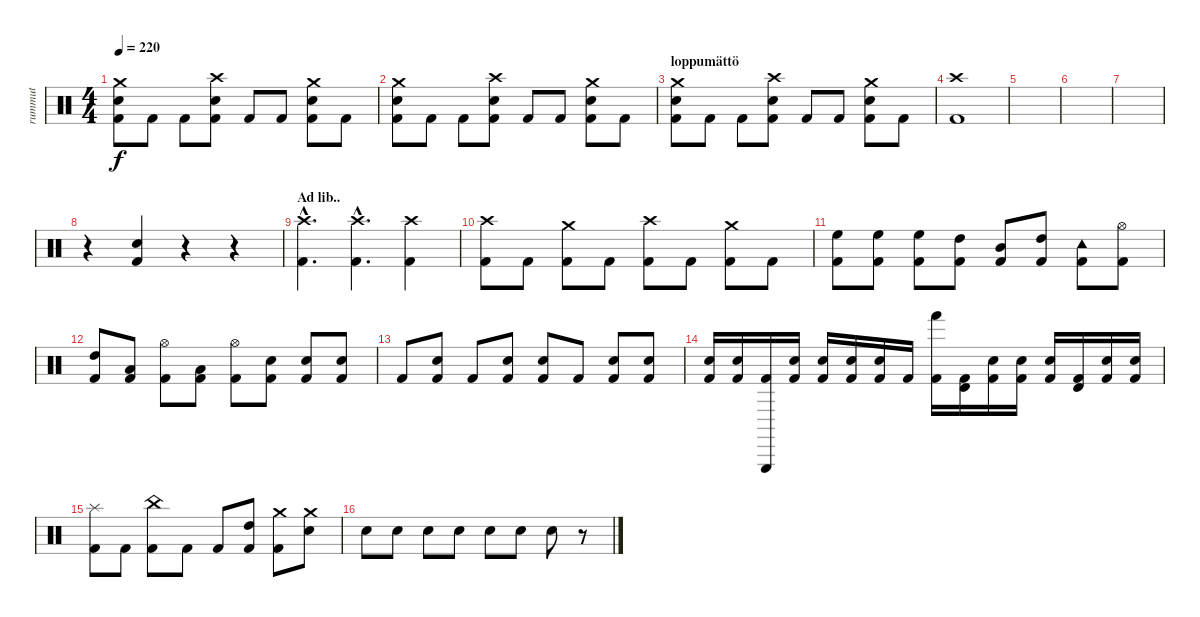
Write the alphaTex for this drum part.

\track ("rummut" "rummut") {instrument percussion}
\staff {score}
\articulation defaults
\ts (4 4)
\tempo 220
\clef neutral
\ks c
("Crash medium (hit)" "Electric Snare (hit)" "Kick (hit) 2").8{dy f} "Kick (hit) 2".8 "Kick (hit) 2".8 ("Crash high (hit)" "Electric Snare (hit)" "Kick (hit) 2").8 "Kick (hit) 2".8 "Kick (hit) 2".8 ("Crash medium (hit)" "Electric Snare (hit)" "Kick (hit) 2").8 "Kick (hit) 2".8 |
("Crash medium (hit)" "Electric Snare (hit)" "Kick (hit) 2").8 "Kick (hit) 2".8 "Kick (hit) 2".8 ("Crash high (hit)" "Electric Snare (hit)" "Kick (hit) 2").8 "Kick (hit) 2".8 "Kick (hit) 2".8 ("Crash medium (hit)" "Electric Snare (hit)" "Kick (hit) 2").8 "Kick (hit) 2".8 |
\section ("" "loppumättö")
("Crash medium (hit)" "Electric Snare (hit)" "Kick (hit) 2").8 "Kick (hit) 2".8 "Kick (hit) 2".8 ("Crash high (hit)" "Electric Snare (hit)" "Kick (hit) 2").8 "Kick (hit) 2".8 "Kick (hit) 2".8 ("Crash medium (hit)" "Electric Snare (hit)" "Kick (hit) 2").8 "Kick (hit) 2".8 |
("Crash high (hit)" "Kick (hit) 2").1 |
|
|
|
r.4 ("Electric Snare (hit)" "Kick (hit) 2").4 r.4 r.4 |
\section ("" "Ad lib..")
("Crash high (hit)"{hac} "Kick (hit) 2"{hac}).4{d} ("Crash high (hit)"{hac} "Kick (hit) 2"{hac}).4{d} ("Crash high (hit)" "Kick (hit) 2").4 |
("Crash high (hit)" "Kick (hit) 2").8 "Kick (hit) 2".8 ("Crash medium (hit)" "Kick (hit) 2").8 "Kick (hit) 2".8 ("Crash high (hit)" "Kick (hit) 2").8 "Kick (hit) 2".8 ("Crash medium (hit)" "Kick (hit) 2").8 "Kick (hit) 2".8 |
("High Floor Tom (hit)" "Kick (hit) 2").8 ("High Floor Tom (hit)" "Kick (hit) 2").8 ("High Floor Tom (hit)" "Kick (hit) 2").8 ("High Tom (hit)" "Kick (hit) 2").8 ("Mid Tom (hit)" "Kick (hit) 2").8 ("High Tom (hit)" "Kick (hit) 2").8 ("Tambourine (hit)" "Kick (hit) 2").8 ("Hi-Hat (open)" "Kick (hit) 2").8 |
("High Tom (hit)" "Kick (hit) 2").8 ("Low Tom (hit)" "Kick (hit) 2").8 ("Hi-Hat (open)" "Kick (hit) 2").8 ("Low Tom (hit)" "Kick (hit) 2").8 ("Hi-Hat (open)" "Kick (hit) 2").8 ("Snare (hit)" "Kick (hit) 2").8 ("Snare (hit)" "Kick (hit) 2").8 ("Snare (hit)" "Kick (hit) 2").8 |
"Kick (hit) 2".8 ("Snare (hit)" "Kick (hit) 2").8 "Kick (hit) 2".8 ("Snare (hit)" "Kick (hit) 2").8 ("Snare (hit)" "Kick (hit) 2").8 "Kick (hit) 2".8 ("Snare (hit)" "Kick (hit) 2").8 ("Snare (hit)" "Kick (hit) 2").8 |
("Snare (hit)" "Kick (hit) 2").16 ("Snare (hit)" "Kick (hit) 2").16 ("Triangle (hit)" "Kick (hit) 2").16 ("Snare (hit)" "Kick (hit) 2").16 ("Snare (hit)" "Kick (hit) 2").16 ("Snare (hit)" "Kick (hit) 2").16 ("Snare (hit)" "Kick (hit) 2").16 "Kick (hit) 2".16 ("Hand (hit)" "Kick (hit) 2").16 ("Timbale high (hit)" "Kick (hit) 2").16 ("Snare (hit)" "Kick (hit) 2").16 ("Snare (hit)" "Kick (hit) 2").16 ("Snare (hit)" "Kick (hit) 2").16 ("Timbale high (hit)" "Kick (hit) 2").16 ("Snare (hit)" "Kick (hit) 2").16 ("Snare (hit)" "Kick (hit) 2").16 |
("Splash (hit)" "Kick (hit) 2").8 "Kick (hit) 2".8 ("China (hit)" "Kick (hit) 2").8 "Kick (hit) 2".8 "Kick (hit) 2".8 ("High Tom (hit)" "Kick (hit) 2").8 ("Crash medium (hit)" "Kick (hit) 2").8 ("Crash medium (hit)" "Snare (hit)").8 |
"Electric Snare (hit)".8 "Electric Snare (hit)".8 "Electric Snare (hit)".8 "Electric Snare (hit)".8 "Electric Snare (hit)".8 "Electric Snare (hit)".8 "Electric Snare (hit)".8 r.8
